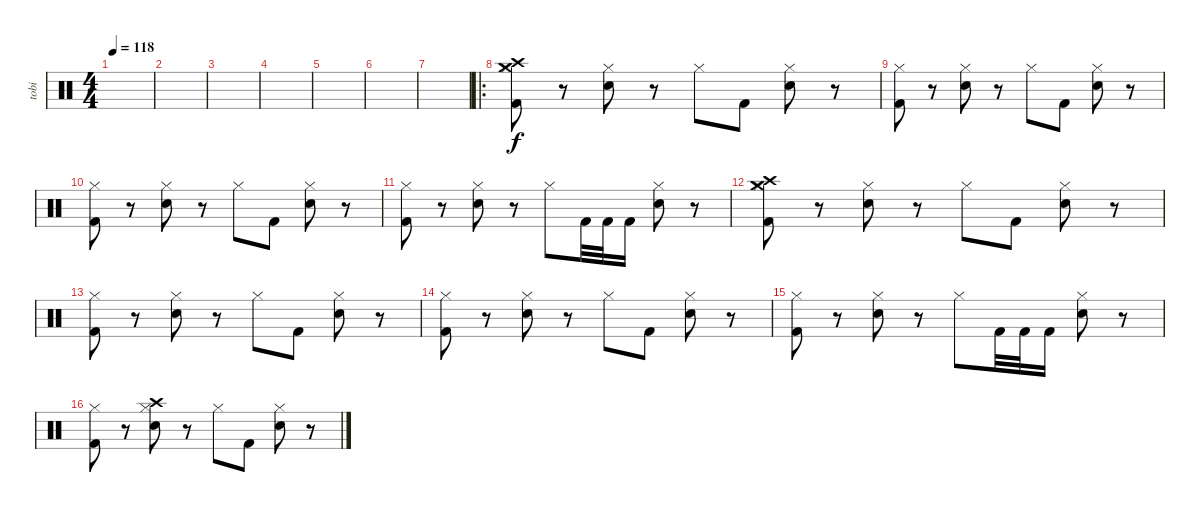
\track ("tobi" "tobi") {instrument percussion}
\staff {score}
\articulation defaults
\ts (4 4)
\tempo 118
\clef neutral
\ks c
|
|
|
|
|
|
|
\ro
("Crash medium (hit)" "Hi-Hat (closed)" "Crash high (hit)" "Kick (hit) 2").8 r.8 ("Hi-Hat (closed)" "Snare (hit) 2").8 r.8 "Hi-Hat (closed)".8 "Kick (hit) 2".8 ("Hi-Hat (closed)" "Snare (hit) 2").8 r.8 |
("Hi-Hat (closed)" "Kick (hit) 2").8 r.8 ("Hi-Hat (closed)" "Snare (hit) 2").8 r.8 "Hi-Hat (closed)".8 "Kick (hit) 2".8 ("Hi-Hat (closed)" "Snare (hit) 2").8 r.8 |
("Hi-Hat (closed)" "Kick (hit) 2").8 r.8 ("Hi-Hat (closed)" "Snare (hit) 2").8 r.8 "Hi-Hat (closed)".8 "Kick (hit) 2".8 ("Hi-Hat (closed)" "Snare (hit) 2").8 r.8 |
("Hi-Hat (closed)" "Kick (hit) 2").8 r.8 ("Hi-Hat (closed)" "Snare (hit) 2").8 r.8 "Hi-Hat (closed)".8 "Kick (hit) 2".32 "Kick (hit) 2".32 "Kick (hit) 2".16 ("Hi-Hat (closed)" "Snare (hit) 2").8 r.8 |
("Crash medium (hit)" "Hi-Hat (closed)" "Crash high (hit)" "Kick (hit) 2").8 r.8 ("Hi-Hat (closed)" "Snare (hit) 2").8 r.8 "Hi-Hat (closed)".8 "Kick (hit) 2".8 ("Hi-Hat (closed)" "Snare (hit) 2").8 r.8 |
("Hi-Hat (closed)" "Kick (hit) 2").8 r.8 ("Hi-Hat (closed)" "Snare (hit) 2").8 r.8 "Hi-Hat (closed)".8 "Kick (hit) 2".8 ("Hi-Hat (closed)" "Snare (hit) 2").8 r.8 |
("Hi-Hat (closed)" "Kick (hit) 2").8 r.8 ("Hi-Hat (closed)" "Snare (hit) 2").8 r.8 "Hi-Hat (closed)".8 "Kick (hit) 2".8 ("Hi-Hat (closed)" "Snare (hit) 2").8 r.8 |
("Hi-Hat (closed)" "Kick (hit) 2").8 r.8 ("Hi-Hat (closed)" "Snare (hit) 2").8 r.8 "Hi-Hat (closed)".8 "Kick (hit) 2".32 "Kick (hit) 2".32 "Kick (hit) 2".16 ("Hi-Hat (closed)" "Snare (hit) 2").8 r.8 |
("Hi-Hat (closed)" "Kick (hit) 2").8 r.8 ("Crash high (hit)" "Hi-Hat (closed)" "Snare (hit) 2").8 r.8 "Hi-Hat (closed)".8 "Kick (hit) 2".8 ("Hi-Hat (closed)" "Snare (hit) 2").8 r.8
